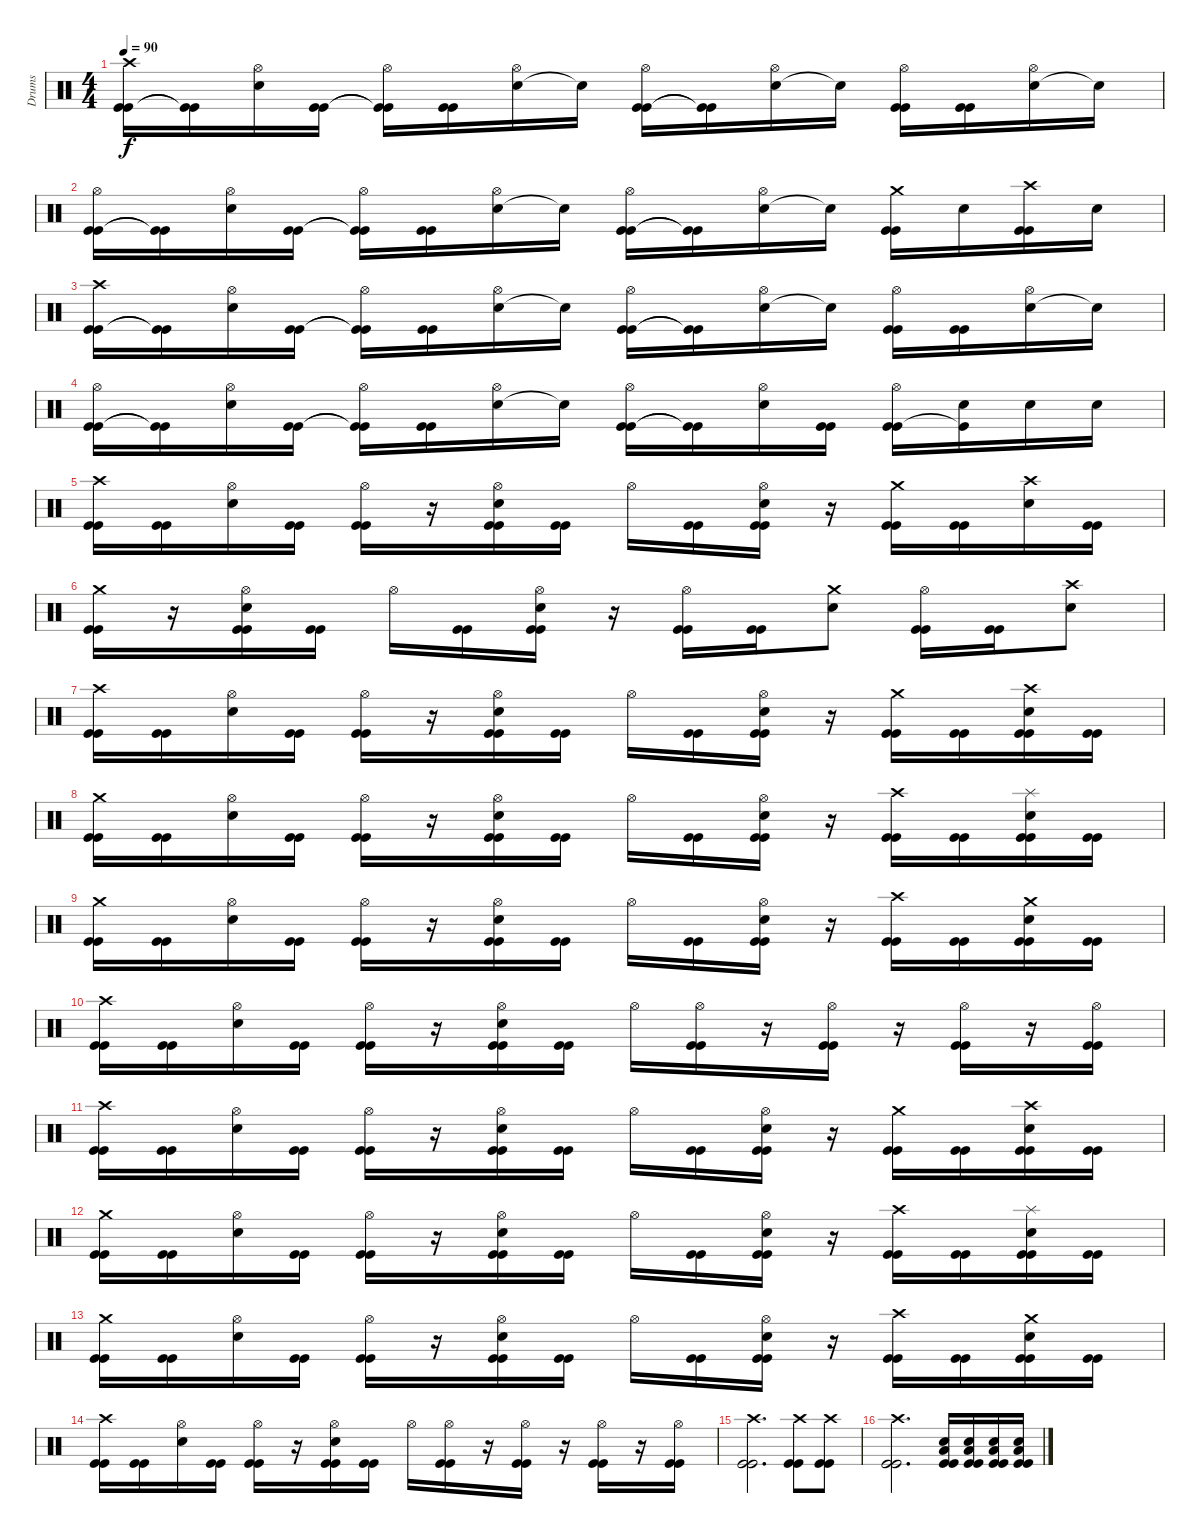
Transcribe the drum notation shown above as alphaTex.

\track ("Drums" "Drums") {instrument percussion}
\staff {score}
\articulation defaults
\ts (4 4)
\tempo 90
\clef neutral
\ks c
("Kick (hit)" "Kick (hit)" "Crash high (hit)").16{dy f} ("Kick (hit)"{t} "Kick (hit)"{t}).16 ("Snare (hit) 2" "Hi-Hat (open)").16 ("Kick (hit)" "Kick (hit)").16 ("Kick (hit)"{t} "Kick (hit)"{t} "Hi-Hat (open)").16 ("Kick (hit)" "Kick (hit)").16 ("Snare (hit) 2" "Hi-Hat (open)").16 "Snare (hit) 2"{t}.16 ("Kick (hit)" "Kick (hit)" "Hi-Hat (open)").16 ("Kick (hit)"{t} "Kick (hit)"{t}).16 ("Snare (hit) 2" "Hi-Hat (open)").16 "Snare (hit) 2"{t}.16 ("Kick (hit)" "Kick (hit)" "Hi-Hat (open)").16 ("Kick (hit)" "Kick (hit)").16 ("Snare (hit) 2" "Hi-Hat (open)").16 "Snare (hit) 2"{t}.16 |
("Kick (hit)" "Kick (hit)" "Hi-Hat (open)").16 ("Kick (hit)"{t} "Kick (hit)"{t}).16 ("Snare (hit) 2" "Hi-Hat (open)").16 ("Kick (hit)" "Kick (hit)").16 ("Kick (hit)"{t} "Kick (hit)"{t} "Hi-Hat (open)").16 ("Kick (hit)" "Kick (hit)").16 ("Snare (hit) 2" "Hi-Hat (open)").16 "Snare (hit) 2"{t}.16 ("Kick (hit)" "Kick (hit)" "Hi-Hat (open)").16 ("Kick (hit)"{t} "Kick (hit)"{t}).16 ("Snare (hit) 2" "Hi-Hat (open)").16 "Snare (hit) 2"{t}.16 ("Kick (hit)" "Kick (hit)" "Crash medium (hit)").16 "Snare (hit) 2".16 ("Kick (hit)" "Kick (hit)" "Crash high (hit)").16 "Snare (hit) 2".16 |
("Kick (hit)" "Kick (hit)" "Crash high (hit)").16 ("Kick (hit)"{t} "Kick (hit)"{t}).16 ("Snare (hit) 2" "Hi-Hat (open)").16 ("Kick (hit)" "Kick (hit)").16 ("Kick (hit)"{t} "Kick (hit)"{t} "Hi-Hat (open)").16 ("Kick (hit)" "Kick (hit)").16 ("Snare (hit) 2" "Hi-Hat (open)").16 "Snare (hit) 2"{t}.16 ("Kick (hit)" "Kick (hit)" "Hi-Hat (open)").16 ("Kick (hit)"{t} "Kick (hit)"{t}).16 ("Snare (hit) 2" "Hi-Hat (open)").16 "Snare (hit) 2"{t}.16 ("Kick (hit)" "Kick (hit)" "Hi-Hat (open)").16 ("Kick (hit)" "Kick (hit)").16 ("Snare (hit) 2" "Hi-Hat (open)").16 "Snare (hit) 2"{t}.16 |
("Kick (hit)" "Kick (hit)" "Hi-Hat (open)").16 ("Kick (hit)"{t} "Kick (hit)"{t}).16 ("Snare (hit) 2" "Hi-Hat (open)").16 ("Kick (hit)" "Kick (hit)").16 ("Kick (hit)"{t} "Kick (hit)"{t} "Hi-Hat (open)").16 ("Kick (hit)" "Kick (hit)").16 ("Snare (hit) 2" "Hi-Hat (open)").16 "Snare (hit) 2"{t}.16 ("Kick (hit)" "Kick (hit)" "Hi-Hat (open)").16 ("Kick (hit)"{t} "Kick (hit)"{t}).16 ("Snare (hit) 2" "Hi-Hat (open)").16 ("Kick (hit)" "Kick (hit)").16 ("Kick (hit)" "Kick (hit)" "Hi-Hat (open)").16 ("Kick (hit)"{t} "Snare (hit) 2").16 "Snare (hit) 2".16 "Snare (hit) 2".16 |
("Kick (hit)" "Kick (hit)" "Crash high (hit)").16 ("Kick (hit)" "Kick (hit)").16 ("Snare (hit) 2" "Hi-Hat (open)").16 ("Kick (hit)" "Kick (hit)").16 ("Kick (hit)" "Kick (hit)" "Hi-Hat (open)").16 r.16 ("Kick (hit)" "Kick (hit)" "Snare (hit) 2" "Hi-Hat (open)").16 ("Kick (hit)" "Kick (hit)").16 "Hi-Hat (open)".16 ("Kick (hit)" "Kick (hit)").16 ("Kick (hit)" "Kick (hit)" "Snare (hit) 2" "Hi-Hat (open)").16 r.16 ("Kick (hit)" "Kick (hit)" "Crash medium (hit)").16 ("Kick (hit)" "Kick (hit)").16 ("Snare (hit) 2" "Crash high (hit)").16 ("Kick (hit)" "Kick (hit)").16 |
("Kick (hit)" "Kick (hit)" "Crash medium (hit)").16 r.16 ("Kick (hit)" "Kick (hit)" "Snare (hit) 2" "Hi-Hat (open)").16 ("Kick (hit)" "Kick (hit)").16 "Hi-Hat (open)".16 ("Kick (hit)" "Kick (hit)").16 ("Kick (hit)" "Kick (hit)" "Snare (hit) 2" "Hi-Hat (open)").16 r.16 ("Kick (hit)" "Kick (hit)" "Hi-Hat (open)").16 ("Kick (hit)" "Kick (hit)").16 ("Crash medium (hit)" "Snare (hit) 2").8 ("Kick (hit)" "Kick (hit)" "Hi-Hat (open)").16 ("Kick (hit)" "Kick (hit)").16 ("Crash high (hit)" "Snare (hit) 2").8 |
("Kick (hit)" "Kick (hit)" "Crash high (hit)").16 ("Kick (hit)" "Kick (hit)").16 ("Snare (hit) 2" "Hi-Hat (open)").16 ("Kick (hit)" "Kick (hit)").16 ("Kick (hit)" "Kick (hit)" "Hi-Hat (open)").16 r.16 ("Kick (hit)" "Kick (hit)" "Snare (hit) 2" "Hi-Hat (open)").16 ("Kick (hit)" "Kick (hit)").16 "Hi-Hat (open)".16 ("Kick (hit)" "Kick (hit)").16 ("Kick (hit)" "Kick (hit)" "Snare (hit) 2" "Hi-Hat (open)").16 r.16 ("Kick (hit)" "Kick (hit)" "Crash medium (hit)").16 ("Kick (hit)" "Kick (hit)").16 ("Kick (hit)" "Kick (hit)" "Snare (hit) 2" "Crash high (hit)").16 ("Kick (hit)" "Kick (hit)").16 |
("Kick (hit)" "Kick (hit)" "Crash medium (hit)").16 ("Kick (hit)" "Kick (hit)").16 ("Snare (hit) 2" "Hi-Hat (open)").16 ("Kick (hit)" "Kick (hit)").16 ("Kick (hit)" "Kick (hit)" "Hi-Hat (open)").16 r.16 ("Kick (hit)" "Kick (hit)" "Snare (hit) 2" "Hi-Hat (open)").16 ("Kick (hit)" "Kick (hit)").16 "Hi-Hat (open)".16 ("Kick (hit)" "Kick (hit)").16 ("Kick (hit)" "Kick (hit)" "Snare (hit) 2" "Hi-Hat (open)").16 r.16 ("Kick (hit)" "Kick (hit)" "Crash high (hit)").16 ("Kick (hit)" "Kick (hit)").16 ("Kick (hit)" "Kick (hit)" "Snare (hit) 2" "Splash (hit)").16 ("Kick (hit)" "Kick (hit)").16 |
("Kick (hit)" "Kick (hit)" "Crash medium (hit)").16 ("Kick (hit)" "Kick (hit)").16 ("Snare (hit) 2" "Hi-Hat (open)").16 ("Kick (hit)" "Kick (hit)").16 ("Kick (hit)" "Kick (hit)" "Hi-Hat (open)").16 r.16 ("Kick (hit)" "Kick (hit)" "Snare (hit) 2" "Hi-Hat (open)").16 ("Kick (hit)" "Kick (hit)").16 "Hi-Hat (open)".16 ("Kick (hit)" "Kick (hit)").16 ("Kick (hit)" "Kick (hit)" "Snare (hit) 2" "Hi-Hat (open)").16 r.16 ("Kick (hit)" "Kick (hit)" "Crash high (hit)").16 ("Kick (hit)" "Kick (hit)").16 ("Kick (hit)" "Kick (hit)" "Snare (hit) 2" "Crash medium (hit)").16 ("Kick (hit)" "Kick (hit)").16 |
("Kick (hit)" "Kick (hit)" "Crash high (hit)").16 ("Kick (hit)" "Kick (hit)").16 ("Snare (hit) 2" "Hi-Hat (open)").16 ("Kick (hit)" "Kick (hit)").16 ("Kick (hit)" "Kick (hit)" "Hi-Hat (open)").16 r.16 ("Kick (hit)" "Kick (hit)" "Snare (hit) 2" "Hi-Hat (open)").16 ("Kick (hit)" "Kick (hit)").16 "Hi-Hat (open)".16 ("Kick (hit)" "Hi-Hat (open)" "Kick (hit)").16 r.16 ("Kick (hit)" "Hi-Hat (open)" "Kick (hit)").16 r.16 ("Kick (hit)" "Hi-Hat (open)" "Kick (hit)").16 r.16 ("Kick (hit)" "Hi-Hat (open)" "Kick (hit)").16 |
("Kick (hit)" "Kick (hit)" "Crash high (hit)").16 ("Kick (hit)" "Kick (hit)").16 ("Snare (hit) 2" "Hi-Hat (open)").16 ("Kick (hit)" "Kick (hit)").16 ("Kick (hit)" "Kick (hit)" "Hi-Hat (open)").16 r.16 ("Kick (hit)" "Kick (hit)" "Snare (hit) 2" "Hi-Hat (open)").16 ("Kick (hit)" "Kick (hit)").16 "Hi-Hat (open)".16 ("Kick (hit)" "Kick (hit)").16 ("Kick (hit)" "Kick (hit)" "Snare (hit) 2" "Hi-Hat (open)").16 r.16 ("Kick (hit)" "Kick (hit)" "Crash medium (hit)").16 ("Kick (hit)" "Kick (hit)").16 ("Kick (hit)" "Kick (hit)" "Snare (hit) 2" "Crash high (hit)").16 ("Kick (hit)" "Kick (hit)").16 |
("Kick (hit)" "Kick (hit)" "Crash medium (hit)").16 ("Kick (hit)" "Kick (hit)").16 ("Snare (hit) 2" "Hi-Hat (open)").16 ("Kick (hit)" "Kick (hit)").16 ("Kick (hit)" "Kick (hit)" "Hi-Hat (open)").16 r.16 ("Kick (hit)" "Kick (hit)" "Snare (hit) 2" "Hi-Hat (open)").16 ("Kick (hit)" "Kick (hit)").16 "Hi-Hat (open)".16 ("Kick (hit)" "Kick (hit)").16 ("Kick (hit)" "Kick (hit)" "Snare (hit) 2" "Hi-Hat (open)").16 r.16 ("Kick (hit)" "Kick (hit)" "Crash high (hit)").16 ("Kick (hit)" "Kick (hit)").16 ("Kick (hit)" "Kick (hit)" "Snare (hit) 2" "Splash (hit)").16 ("Kick (hit)" "Kick (hit)").16 |
("Kick (hit)" "Kick (hit)" "Crash medium (hit)").16 ("Kick (hit)" "Kick (hit)").16 ("Snare (hit) 2" "Hi-Hat (open)").16 ("Kick (hit)" "Kick (hit)").16 ("Kick (hit)" "Kick (hit)" "Hi-Hat (open)").16 r.16 ("Kick (hit)" "Kick (hit)" "Snare (hit) 2" "Hi-Hat (open)").16 ("Kick (hit)" "Kick (hit)").16 "Hi-Hat (open)".16 ("Kick (hit)" "Kick (hit)").16 ("Kick (hit)" "Kick (hit)" "Snare (hit) 2" "Hi-Hat (open)").16 r.16 ("Kick (hit)" "Kick (hit)" "Crash high (hit)").16 ("Kick (hit)" "Kick (hit)").16 ("Kick (hit)" "Kick (hit)" "Snare (hit) 2" "Crash medium (hit)").16 ("Kick (hit)" "Kick (hit)").16 |
("Kick (hit)" "Kick (hit)" "Crash high (hit)").16 ("Kick (hit)" "Kick (hit)").16 ("Snare (hit) 2" "Hi-Hat (open)").16 ("Kick (hit)" "Kick (hit)").16 ("Kick (hit)" "Kick (hit)" "Hi-Hat (open)").16 r.16 ("Kick (hit)" "Kick (hit)" "Snare (hit) 2" "Hi-Hat (open)").16 ("Kick (hit)" "Kick (hit)").16 "Hi-Hat (open)".16 ("Kick (hit)" "Hi-Hat (open)" "Kick (hit)").16 r.16 ("Kick (hit)" "Hi-Hat (open)" "Kick (hit)").16 r.16 ("Kick (hit)" "Hi-Hat (open)" "Kick (hit)").16 r.16 ("Kick (hit)" "Hi-Hat (open)" "Kick (hit)").16 |
("Kick (hit)" "Kick (hit)" "Crash high (hit)").2{d} ("Kick (hit)" "Crash high (hit)" "Kick (hit)").8 ("Kick (hit)" "Crash high (hit)" "Kick (hit)").8 |
("Kick (hit)" "Kick (hit)" "Crash high (hit)").2{d} ("Kick (hit)" "Kick (hit)" "Snare (hit) 2" "Low Floor Tom (hit)").16 ("Kick (hit)" "Kick (hit)" "Snare (hit) 2" "Low Floor Tom (hit)").16 ("Kick (hit)" "Kick (hit)" "Snare (hit) 2" "Low Floor Tom (hit)").16 ("Kick (hit)" "Kick (hit)" "Snare (hit) 2" "Low Floor Tom (hit)").16
